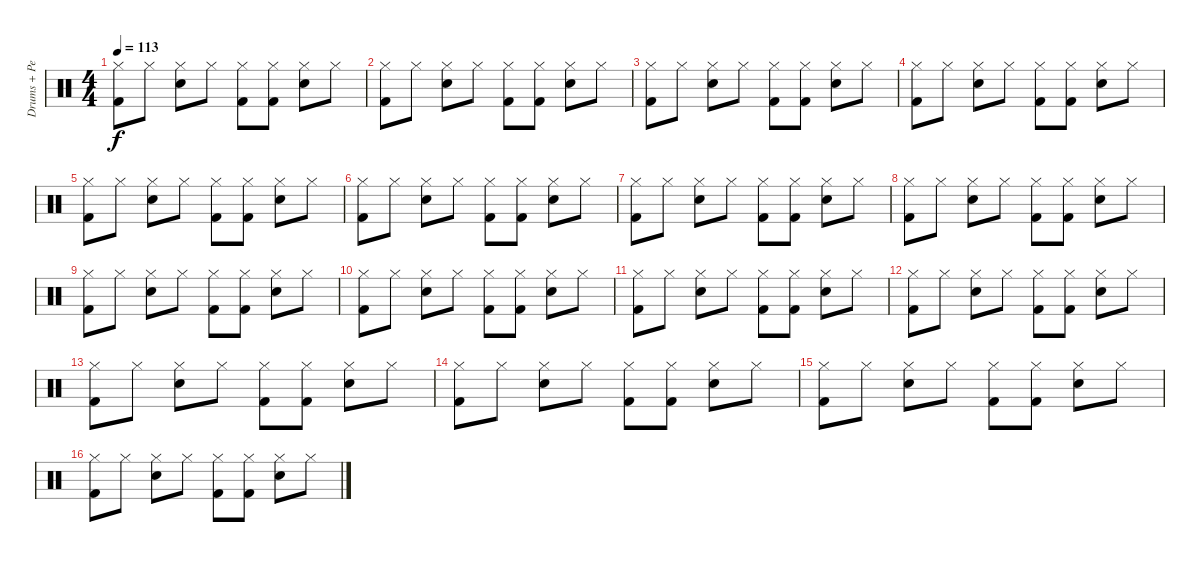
\track ("Drums + Percussion" "Drums + Pe") {instrument percussion}
\staff {score}
\articulation defaults
\ts (4 4)
\tempo 113
\clef neutral
\ks c
("Hi-Hat (closed)" "Kick (hit) 2").8{dy f} "Hi-Hat (closed)".8 ("Hi-Hat (closed)" "Snare (hit) 2").8 "Hi-Hat (closed)".8 ("Hi-Hat (closed)" "Kick (hit) 2").8 ("Hi-Hat (closed)" "Kick (hit) 2").8 ("Hi-Hat (closed)" "Snare (hit) 2").8 "Hi-Hat (closed)".8 |
("Hi-Hat (closed)" "Kick (hit) 2").8 "Hi-Hat (closed)".8 ("Hi-Hat (closed)" "Snare (hit) 2").8 "Hi-Hat (closed)".8 ("Hi-Hat (closed)" "Kick (hit) 2").8 ("Hi-Hat (closed)" "Kick (hit) 2").8 ("Hi-Hat (closed)" "Snare (hit) 2").8 "Hi-Hat (closed)".8 |
("Hi-Hat (closed)" "Kick (hit) 2").8 "Hi-Hat (closed)".8 ("Hi-Hat (closed)" "Snare (hit) 2").8 "Hi-Hat (closed)".8 ("Hi-Hat (closed)" "Kick (hit) 2").8 ("Hi-Hat (closed)" "Kick (hit) 2").8 ("Hi-Hat (closed)" "Snare (hit) 2").8 "Hi-Hat (closed)".8 |
("Hi-Hat (closed)" "Kick (hit) 2").8 "Hi-Hat (closed)".8 ("Hi-Hat (closed)" "Snare (hit) 2").8 "Hi-Hat (closed)".8 ("Hi-Hat (closed)" "Kick (hit) 2").8 ("Hi-Hat (closed)" "Kick (hit) 2").8 ("Hi-Hat (closed)" "Snare (hit) 2").8 "Hi-Hat (closed)".8 |
("Hi-Hat (closed)" "Kick (hit) 2").8 "Hi-Hat (closed)".8 ("Hi-Hat (closed)" "Snare (hit) 2").8 "Hi-Hat (closed)".8 ("Hi-Hat (closed)" "Kick (hit) 2").8 ("Hi-Hat (closed)" "Kick (hit) 2").8 ("Hi-Hat (closed)" "Snare (hit) 2").8 "Hi-Hat (closed)".8 |
("Hi-Hat (closed)" "Kick (hit) 2").8 "Hi-Hat (closed)".8 ("Hi-Hat (closed)" "Snare (hit) 2").8 "Hi-Hat (closed)".8 ("Hi-Hat (closed)" "Kick (hit) 2").8 ("Hi-Hat (closed)" "Kick (hit) 2").8 ("Hi-Hat (closed)" "Snare (hit) 2").8 "Hi-Hat (closed)".8 |
("Hi-Hat (closed)" "Kick (hit) 2").8 "Hi-Hat (closed)".8 ("Hi-Hat (closed)" "Snare (hit) 2").8 "Hi-Hat (closed)".8 ("Hi-Hat (closed)" "Kick (hit) 2").8 ("Hi-Hat (closed)" "Kick (hit) 2").8 ("Hi-Hat (closed)" "Snare (hit) 2").8 "Hi-Hat (closed)".8 |
("Hi-Hat (closed)" "Kick (hit) 2").8 "Hi-Hat (closed)".8 ("Hi-Hat (closed)" "Snare (hit) 2").8 "Hi-Hat (closed)".8 ("Hi-Hat (closed)" "Kick (hit) 2").8 ("Hi-Hat (closed)" "Kick (hit) 2").8 ("Hi-Hat (closed)" "Snare (hit) 2").8 "Hi-Hat (closed)".8 |
("Hi-Hat (closed)" "Kick (hit) 2").8 "Hi-Hat (closed)".8 ("Hi-Hat (closed)" "Snare (hit) 2").8 "Hi-Hat (closed)".8 ("Hi-Hat (closed)" "Kick (hit) 2").8 ("Hi-Hat (closed)" "Kick (hit) 2").8 ("Hi-Hat (closed)" "Snare (hit) 2").8 "Hi-Hat (closed)".8 |
("Hi-Hat (closed)" "Kick (hit) 2").8 "Hi-Hat (closed)".8 ("Hi-Hat (closed)" "Snare (hit) 2").8 "Hi-Hat (closed)".8 ("Hi-Hat (closed)" "Kick (hit) 2").8 ("Hi-Hat (closed)" "Kick (hit) 2").8 ("Hi-Hat (closed)" "Snare (hit) 2").8 "Hi-Hat (closed)".8 |
("Hi-Hat (closed)" "Kick (hit) 2").8 "Hi-Hat (closed)".8 ("Hi-Hat (closed)" "Snare (hit) 2").8 "Hi-Hat (closed)".8 ("Hi-Hat (closed)" "Kick (hit) 2").8 ("Hi-Hat (closed)" "Kick (hit) 2").8 ("Hi-Hat (closed)" "Snare (hit) 2").8 "Hi-Hat (closed)".8 |
("Hi-Hat (closed)" "Kick (hit) 2").8 "Hi-Hat (closed)".8 ("Hi-Hat (closed)" "Snare (hit) 2").8 "Hi-Hat (closed)".8 ("Hi-Hat (closed)" "Kick (hit) 2").8 ("Hi-Hat (closed)" "Kick (hit) 2").8 ("Hi-Hat (closed)" "Snare (hit) 2").8 "Hi-Hat (closed)".8 |
("Hi-Hat (closed)" "Kick (hit) 2").8 "Hi-Hat (closed)".8 ("Hi-Hat (closed)" "Snare (hit) 2").8 "Hi-Hat (closed)".8 ("Hi-Hat (closed)" "Kick (hit) 2").8 ("Hi-Hat (closed)" "Kick (hit) 2").8 ("Hi-Hat (closed)" "Snare (hit) 2").8 "Hi-Hat (closed)".8 |
("Hi-Hat (closed)" "Kick (hit) 2").8 "Hi-Hat (closed)".8 ("Hi-Hat (closed)" "Snare (hit) 2").8 "Hi-Hat (closed)".8 ("Hi-Hat (closed)" "Kick (hit) 2").8 ("Hi-Hat (closed)" "Kick (hit) 2").8 ("Hi-Hat (closed)" "Snare (hit) 2").8 "Hi-Hat (closed)".8 |
("Hi-Hat (closed)" "Kick (hit) 2").8 "Hi-Hat (closed)".8 ("Hi-Hat (closed)" "Snare (hit) 2").8 "Hi-Hat (closed)".8 ("Hi-Hat (closed)" "Kick (hit) 2").8 ("Hi-Hat (closed)" "Kick (hit) 2").8 ("Hi-Hat (closed)" "Snare (hit) 2").8 "Hi-Hat (closed)".8 |
("Hi-Hat (closed)" "Kick (hit) 2").8 "Hi-Hat (closed)".8 ("Hi-Hat (closed)" "Snare (hit) 2").8 "Hi-Hat (closed)".8 ("Hi-Hat (closed)" "Kick (hit) 2").8 ("Hi-Hat (closed)" "Kick (hit) 2").8 ("Hi-Hat (closed)" "Snare (hit) 2").8 "Hi-Hat (closed)".8
